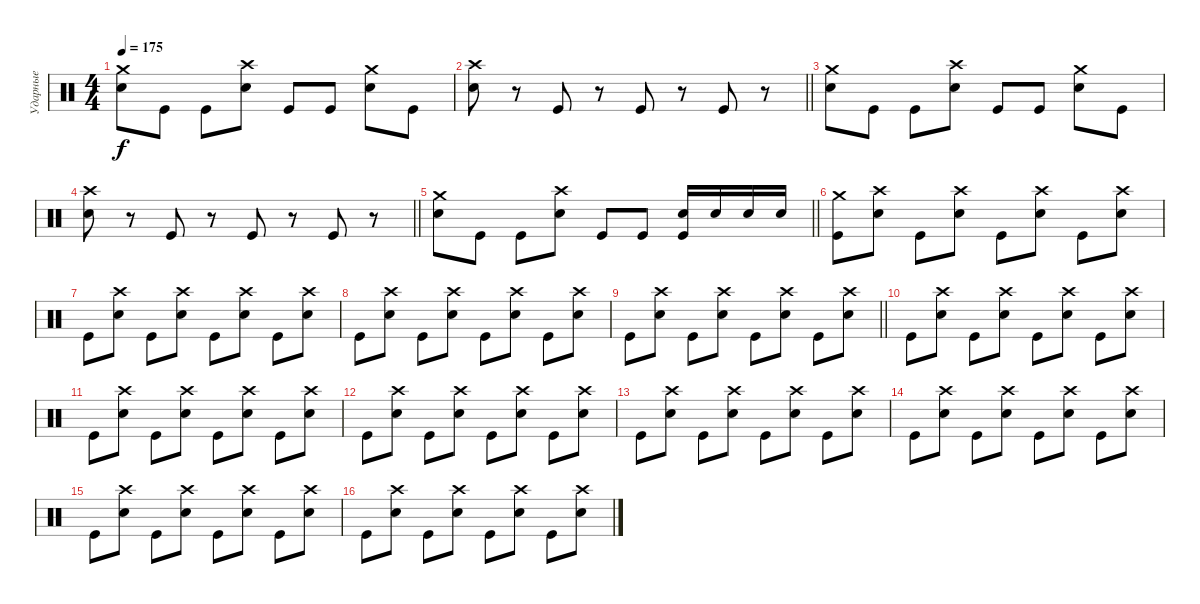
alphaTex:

\track ("Ударные" "Ударные") {instrument percussion}
\staff {score}
\articulation defaults
\ts (4 4)
\section ("" " ")
\tempo 175
\clef neutral
\ks c
("Crash medium (hit)" "Electric Snare (hit)").8{dy f} "Kick (hit)".8 "Kick (hit)".8 ("Crash high (hit)" "Electric Snare (hit)").8 "Kick (hit)".8 "Kick (hit)".8 ("Crash medium (hit)" "Electric Snare (hit)").8 "Kick (hit)".8 |
\barLineRight lightlight
("Crash high (hit)" "Electric Snare (hit)").8 r.8 "Kick (hit)".8 r.8 "Kick (hit)".8 r.8 "Kick (hit)".8 r.8 |
("Crash medium (hit)" "Electric Snare (hit)").8 "Kick (hit)".8 "Kick (hit)".8 ("Crash high (hit)" "Electric Snare (hit)").8 "Kick (hit)".8 "Kick (hit)".8 ("Crash medium (hit)" "Electric Snare (hit)").8 "Kick (hit)".8 |
\barLineRight lightlight
("Crash high (hit)" "Electric Snare (hit)").8 r.8 "Kick (hit)".8 r.8 "Kick (hit)".8 r.8 "Kick (hit)".8 r.8 |
\barLineRight lightlight
("Crash medium (hit)" "Electric Snare (hit)").8 "Kick (hit)".8 "Kick (hit)".8 ("Crash high (hit)" "Electric Snare (hit)").8 "Kick (hit)".8 "Kick (hit)".8 ("Electric Snare (hit)" "Kick (hit)").16 "Electric Snare (hit)".16 "Electric Snare (hit)".16 "Electric Snare (hit)".16 |
\section ("" " ")
("Crash medium (hit)" "Kick (hit)").8 ("Crash high (hit)" "Electric Snare (hit)").8 "Kick (hit)".8 ("Crash high (hit)" "Electric Snare (hit)").8 "Kick (hit)".8 ("Crash high (hit)" "Electric Snare (hit)").8 "Kick (hit)".8 ("Crash high (hit)" "Electric Snare (hit)").8 |
"Kick (hit)".8 ("Crash high (hit)" "Electric Snare (hit)").8 "Kick (hit)".8 ("Crash high (hit)" "Electric Snare (hit)").8 "Kick (hit)".8 ("Crash high (hit)" "Electric Snare (hit)").8 "Kick (hit)".8 ("Crash high (hit)" "Electric Snare (hit)").8 |
"Kick (hit)".8 ("Crash high (hit)" "Electric Snare (hit)").8 "Kick (hit)".8 ("Crash high (hit)" "Electric Snare (hit)").8 "Kick (hit)".8 ("Crash high (hit)" "Electric Snare (hit)").8 "Kick (hit)".8 ("Crash high (hit)" "Electric Snare (hit)").8 |
\barLineRight lightlight "Kick (hit)".8
("Crash high (hit)" "Electric Snare (hit)").8 "Kick (hit)".8 ("Crash high (hit)" "Electric Snare (hit)").8 "Kick (hit)".8 ("Crash high (hit)" "Electric Snare (hit)").8 "Kick (hit)".8 ("Crash high (hit)" "Electric Snare (hit)").8 |
\section ("" " ")
"Kick (hit)".8 ("Crash high (hit)" "Electric Snare (hit)").8 "Kick (hit)".8 ("Crash high (hit)" "Electric Snare (hit)").8 "Kick (hit)".8 ("Crash high (hit)" "Electric Snare (hit)").8 "Kick (hit)".8 ("Crash high (hit)" "Electric Snare (hit)").8 |
"Kick (hit)".8 ("Crash high (hit)" "Electric Snare (hit)").8 "Kick (hit)".8 ("Crash high (hit)" "Electric Snare (hit)").8 "Kick (hit)".8 ("Crash high (hit)" "Electric Snare (hit)").8 "Kick (hit)".8 ("Crash high (hit)" "Electric Snare (hit)").8 |
"Kick (hit)".8 ("Crash high (hit)" "Electric Snare (hit)").8 "Kick (hit)".8 ("Crash high (hit)" "Electric Snare (hit)").8 "Kick (hit)".8 ("Crash high (hit)" "Electric Snare (hit)").8 "Kick (hit)".8 ("Crash high (hit)" "Electric Snare (hit)").8 |
"Kick (hit)".8 ("Crash high (hit)" "Electric Snare (hit)").8 "Kick (hit)".8 ("Crash high (hit)" "Electric Snare (hit)").8 "Kick (hit)".8 ("Crash high (hit)" "Electric Snare (hit)").8 "Kick (hit)".8 ("Crash high (hit)" "Electric Snare (hit)").8 |
"Kick (hit)".8 ("Crash high (hit)" "Electric Snare (hit)").8 "Kick (hit)".8 ("Crash high (hit)" "Electric Snare (hit)").8 "Kick (hit)".8 ("Crash high (hit)" "Electric Snare (hit)").8 "Kick (hit)".8 ("Crash high (hit)" "Electric Snare (hit)").8 |
"Kick (hit)".8 ("Crash high (hit)" "Electric Snare (hit)").8 "Kick (hit)".8 ("Crash high (hit)" "Electric Snare (hit)").8 "Kick (hit)".8 ("Crash high (hit)" "Electric Snare (hit)").8 "Kick (hit)".8 ("Crash high (hit)" "Electric Snare (hit)").8 |
"Kick (hit)".8 ("Crash high (hit)" "Electric Snare (hit)").8 "Kick (hit)".8 ("Crash high (hit)" "Electric Snare (hit)").8 "Kick (hit)".8 ("Crash high (hit)" "Electric Snare (hit)").8 "Kick (hit)".8 ("Crash high (hit)" "Electric Snare (hit)").8
